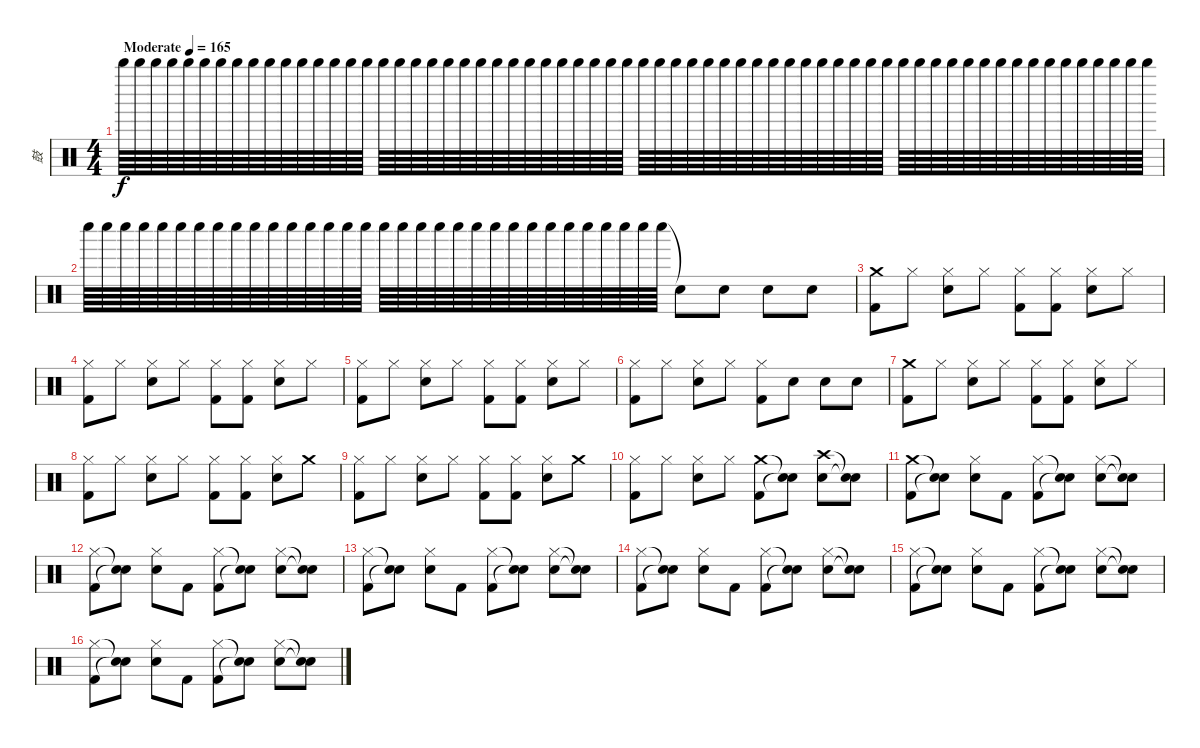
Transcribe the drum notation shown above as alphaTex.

\track ("鼓" "鼓") {instrument percussion}
\staff {score}
\articulation defaults
\ts (4 4)
\tempo (165 "Moderate")
\clef neutral
\ks c "Whistle high (hit)".64{dy f} "Whistle high (hit)".64 "Whistle high (hit)".64 "Whistle high (hit)".64 "Whistle high (hit)".64 "Whistle high (hit)".64 "Whistle high (hit)".64 "Whistle high (hit)".64 "Whistle high (hit)".64 "Whistle high (hit)".64 "Whistle high (hit)".64 "Whistle high (hit)".64 "Whistle high (hit)".64 "Whistle high (hit)".64 "Whistle high (hit)".64 "Whistle high (hit)".64 "Whistle high (hit)".64 "Whistle high (hit)".64 "Whistle high (hit)".64 "Whistle high (hit)".64 "Whistle high (hit)".64 "Whistle high (hit)".64 "Whistle high (hit)".64 "Whistle high (hit)".64 "Whistle high (hit)".64 "Whistle high (hit)".64 "Whistle high (hit)".64 "Whistle high (hit)".64 "Whistle high (hit)".64 "Whistle high (hit)".64 "Whistle high (hit)".64 "Whistle high (hit)".64 "Whistle high (hit)".64 "Whistle high (hit)".64 "Whistle high (hit)".64 "Whistle high (hit)".64 "Whistle high (hit)".64 "Whistle high (hit)".64 "Whistle high (hit)".64 "Whistle high (hit)".64 "Whistle high (hit)".64 "Whistle high (hit)".64 "Whistle high (hit)".64 "Whistle high (hit)".64 "Whistle high (hit)".64 "Whistle high (hit)".64 "Whistle high (hit)".64 "Whistle high (hit)".64 "Whistle high (hit)".64 "Whistle high (hit)".64 "Whistle high (hit)".64 "Whistle high (hit)".64 "Whistle high (hit)".64 "Whistle high (hit)".64 "Whistle high (hit)".64 "Whistle high (hit)".64 "Whistle high (hit)".64 "Whistle high (hit)".64 "Whistle high (hit)".64 "Whistle high (hit)".64 "Whistle high (hit)".64 "Whistle high (hit)".64 "Whistle high (hit)".64 "Whistle high (hit)".64
|
"Whistle low (hit)".64 "Whistle low (hit)".64 "Whistle low (hit)".64 "Whistle low (hit)".64 "Whistle low (hit)".64 "Whistle low (hit)".64 "Whistle low (hit)".64 "Whistle low (hit)".64 "Whistle low (hit)".64 "Whistle low (hit)".64 "Whistle low (hit)".64 "Whistle low (hit)".64 "Whistle low (hit)".64 "Whistle low (hit)".64 "Whistle low (hit)".64 "Whistle low (hit)".64 "Whistle low (hit)".64 "Whistle low (hit)".64 "Whistle low (hit)".64 "Whistle low (hit)".64 "Whistle low (hit)".64 "Whistle low (hit)".64 "Whistle low (hit)".64 "Whistle low (hit)".64 "Whistle low (hit)".64 "Whistle low (hit)".64 "Whistle low (hit)".64 "Whistle low (hit)".64 "Whistle low (hit)".64 "Whistle low (hit)".64 "Whistle low (hit)".64 "Whistle low (hit)".64 "Snare (hit)"{t}.8 "Snare (hit) 2".8 "Snare (hit) 2".8 "Snare (hit) 2".8 |
("Crash medium (hit)" "Kick (hit) 2").8 "Hi-Hat (closed)".8 ("Hi-Hat (closed)" "Snare (hit) 2").8 "Hi-Hat (closed)".8 ("Hi-Hat (closed)" "Kick (hit) 2").8 ("Hi-Hat (closed)" "Kick (hit) 2").8 ("Hi-Hat (closed)" "Snare (hit) 2").8 "Hi-Hat (closed)".8 |
("Hi-Hat (closed)" "Kick (hit) 2").8 "Hi-Hat (closed)".8 ("Hi-Hat (closed)" "Snare (hit) 2").8 "Hi-Hat (closed)".8 ("Hi-Hat (closed)" "Kick (hit) 2").8 ("Hi-Hat (closed)" "Kick (hit) 2").8 ("Hi-Hat (closed)" "Snare (hit) 2").8 "Hi-Hat (closed)".8 |
("Hi-Hat (closed)" "Kick (hit) 2").8 "Hi-Hat (closed)".8 ("Hi-Hat (closed)" "Snare (hit) 2").8 "Hi-Hat (closed)".8 ("Hi-Hat (closed)" "Kick (hit) 2").8 ("Hi-Hat (closed)" "Kick (hit) 2").8 ("Hi-Hat (closed)" "Snare (hit) 2").8 "Hi-Hat (closed)".8 |
("Hi-Hat (closed)" "Kick (hit) 2").8 "Hi-Hat (closed)".8 ("Hi-Hat (closed)" "Snare (hit) 2").8 "Hi-Hat (closed)".8 ("Hi-Hat (closed)" "Kick (hit) 2").8 "Snare (hit) 2".8 "Snare (hit) 2".8 "Snare (hit) 2".8 |
("Crash medium (hit)" "Kick (hit) 2").8 "Hi-Hat (closed)".8 ("Hi-Hat (closed)" "Snare (hit) 2").8 "Hi-Hat (closed)".8 ("Hi-Hat (closed)" "Kick (hit) 2").8 ("Hi-Hat (closed)" "Kick (hit) 2").8 ("Hi-Hat (closed)" "Snare (hit) 2").8 "Hi-Hat (closed)".8 |
("Hi-Hat (closed)" "Kick (hit) 2").8 "Hi-Hat (closed)".8 ("Hi-Hat (closed)" "Snare (hit) 2").8 "Hi-Hat (closed)".8 ("Hi-Hat (closed)" "Kick (hit) 2").8 ("Hi-Hat (closed)" "Kick (hit) 2").8 ("Hi-Hat (closed)" "Snare (hit) 2").8 "Crash medium (hit)".8 |
("Hi-Hat (closed)" "Kick (hit) 2").8 "Hi-Hat (closed)".8 ("Hi-Hat (closed)" "Snare (hit) 2").8 "Hi-Hat (closed)".8 ("Hi-Hat (closed)" "Kick (hit) 2").8 ("Hi-Hat (closed)" "Kick (hit) 2").8 ("Hi-Hat (closed)" "Snare (hit) 2").8 "Crash medium (hit)".8 |
("Hi-Hat (closed)" "Kick (hit) 2").8 "Hi-Hat (closed)".8 ("Hi-Hat (closed)" "Snare (hit) 2").8 "Hi-Hat (closed)".8 ("Crash medium (hit)" "Kick (hit) 2").8 ("Snare (hit)"{t} "Snare (hit)"{t}).8 ("Crash high (hit)" "Snare (hit) 2").8 ("Snare (hit)"{t} "Snare (hit)"{t}).8 |
("Crash medium (hit)" "Kick (hit) 2").8 ("Snare (hit)"{t} "Snare (hit)"{t}).8 ("Hi-Hat (closed)" "Snare (hit) 2").8 "Kick (hit) 2".8 ("Hi-Hat (closed)" "Kick (hit) 2").8 ("Snare (hit)"{t} "Snare (hit)"{t}).8 ("Hi-Hat (closed)" "Snare (hit) 2").8 ("Snare (hit)"{t} "Snare (hit)"{t}).8 |
("Hi-Hat (closed)" "Kick (hit) 2").8 ("Snare (hit)"{t} "Snare (hit)"{t}).8 ("Hi-Hat (closed)" "Snare (hit) 2").8 "Kick (hit) 2".8 ("Hi-Hat (closed)" "Kick (hit) 2").8 ("Snare (hit)"{t} "Snare (hit)"{t}).8 ("Hi-Hat (closed)" "Snare (hit) 2").8 ("Snare (hit)"{t} "Snare (hit)"{t}).8 |
("Hi-Hat (closed)" "Kick (hit) 2").8 ("Snare (hit)"{t} "Snare (hit)"{t}).8 ("Hi-Hat (closed)" "Snare (hit) 2").8 "Kick (hit) 2".8 ("Hi-Hat (closed)" "Kick (hit) 2").8 ("Snare (hit)"{t} "Snare (hit)"{t}).8 ("Hi-Hat (closed)" "Snare (hit) 2").8 ("Snare (hit)"{t} "Snare (hit)"{t}).8 |
("Hi-Hat (closed)" "Kick (hit) 2").8 ("Snare (hit)"{t} "Snare (hit)"{t}).8 ("Hi-Hat (closed)" "Snare (hit) 2").8 "Kick (hit) 2".8 ("Hi-Hat (closed)" "Kick (hit) 2").8 ("Snare (hit)"{t} "Snare (hit)"{t}).8 ("Hi-Hat (closed)" "Snare (hit) 2").8 ("Snare (hit)"{t} "Snare (hit)"{t}).8 |
("Hi-Hat (closed)" "Kick (hit) 2").8 ("Snare (hit)"{t} "Snare (hit)"{t}).8 ("Hi-Hat (closed)" "Snare (hit) 2").8 "Kick (hit) 2".8 ("Hi-Hat (closed)" "Kick (hit) 2").8 ("Snare (hit)"{t} "Snare (hit)"{t}).8 ("Hi-Hat (closed)" "Snare (hit) 2").8 ("Snare (hit)"{t} "Snare (hit)"{t}).8 |
("Hi-Hat (closed)" "Kick (hit) 2").8 ("Snare (hit)"{t} "Snare (hit)"{t}).8 ("Hi-Hat (closed)" "Snare (hit) 2").8 "Kick (hit) 2".8 ("Hi-Hat (closed)" "Kick (hit) 2").8 ("Snare (hit)"{t} "Snare (hit)"{t}).8 ("Hi-Hat (closed)" "Snare (hit) 2").8 ("Snare (hit)"{t} "Snare (hit)"{t}).8
